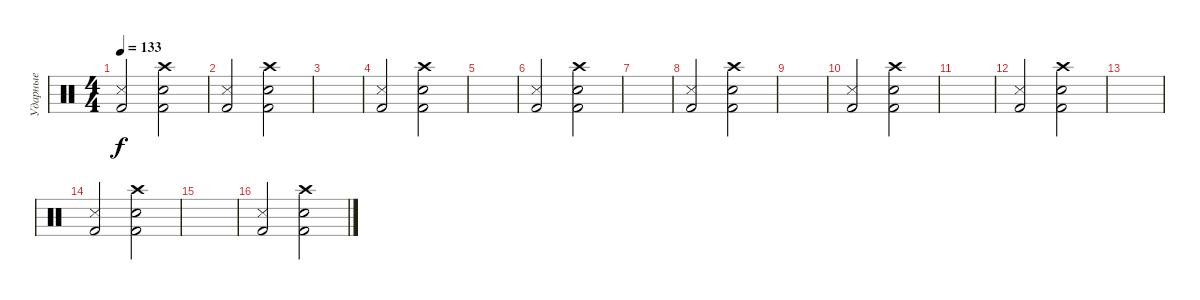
\track ("Ударные" "Ударные") {instrument percussion}
\staff {score}
\articulation defaults
\ts (4 4)
\tempo 133
\clef neutral
\ks c
("Kick (hit) 2" "Metronome (hit)").2{dy f} ("Kick (hit) 2" "Electric Snare (hit)" "Crash high (hit)").2 |
("Kick (hit) 2" "Metronome (hit)").2 ("Kick (hit) 2" "Electric Snare (hit)" "Crash high (hit)").2 |
|
("Kick (hit) 2" "Metronome (hit)").2 ("Kick (hit) 2" "Electric Snare (hit)" "Crash high (hit)").2 |
|
("Kick (hit) 2" "Metronome (hit)").2 ("Kick (hit) 2" "Electric Snare (hit)" "Crash high (hit)").2 |
|
("Kick (hit) 2" "Metronome (hit)").2 ("Kick (hit) 2" "Electric Snare (hit)" "Crash high (hit)").2 |
|
("Kick (hit) 2" "Metronome (hit)").2 ("Kick (hit) 2" "Electric Snare (hit)" "Crash high (hit)").2 |
|
("Kick (hit) 2" "Metronome (hit)").2 ("Kick (hit) 2" "Electric Snare (hit)" "Crash high (hit)").2 |
|
("Kick (hit) 2" "Metronome (hit)").2 ("Kick (hit) 2" "Electric Snare (hit)" "Crash high (hit)").2 |
|
("Kick (hit) 2" "Metronome (hit)").2 ("Kick (hit) 2" "Electric Snare (hit)" "Crash high (hit)").2
